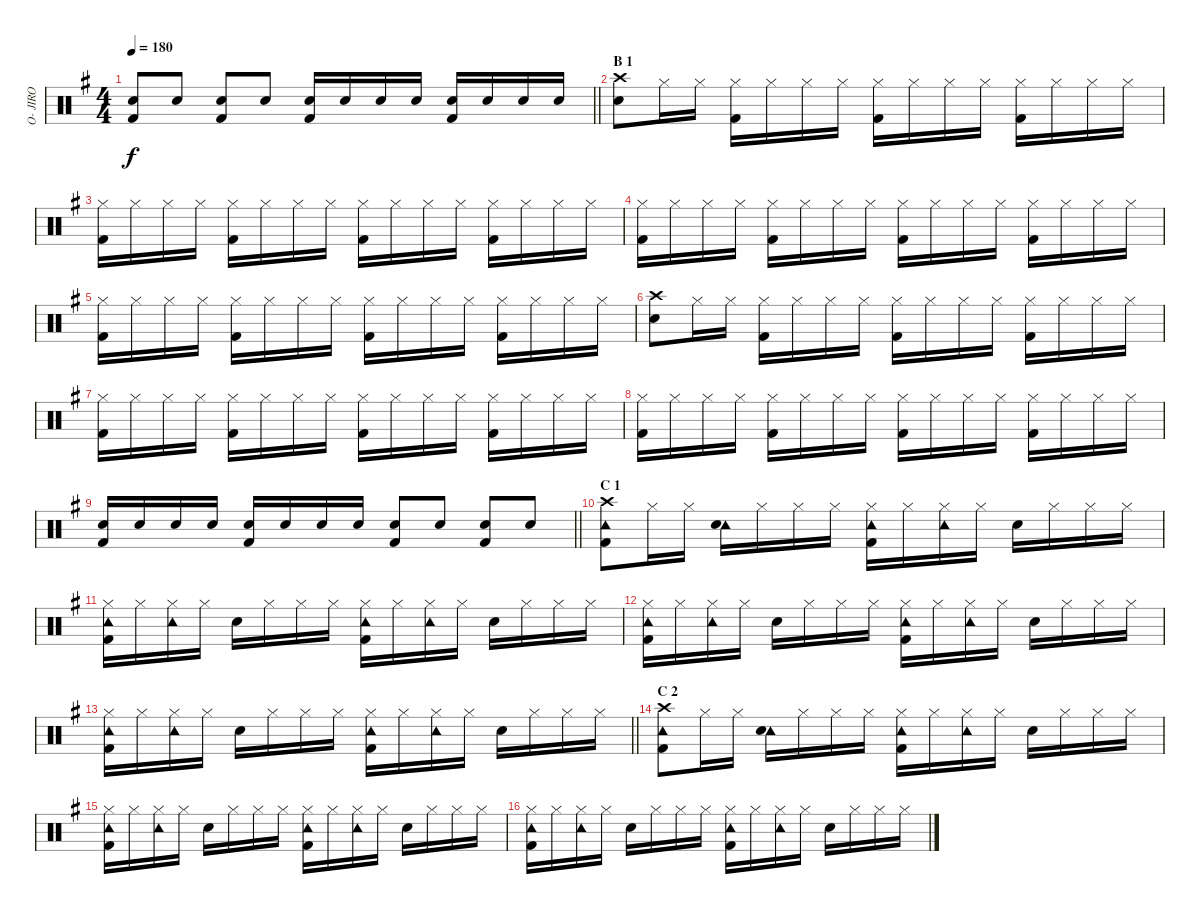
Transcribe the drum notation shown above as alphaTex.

\track ("O- JIRO" "O- JIRO") {instrument percussion}
\staff {score}
\articulation defaults
\ts (4 4)
\tempo 180
\clef neutral
\barLineRight lightlight
\ks g
("Snare (hit) 2" "Kick (hit) 2").8{dy f} "Snare (hit) 2".8 ("Kick (hit) 2" "Snare (hit) 2").8 "Snare (hit) 2".8 ("Snare (hit) 2" "Kick (hit) 2").16 "Snare (hit) 2".16 "Snare (hit) 2".16 "Snare (hit) 2".16 ("Snare (hit) 2" "Kick (hit) 2").16 "Snare (hit) 2".16 "Snare (hit) 2".16 "Snare (hit) 2".16 |
\section ("" "B 1")
("Crash high (hit)" "Snare (hit) 2").8 "Hi-Hat (closed)".16 "Hi-Hat (closed)".16 ("Hi-Hat (closed)" "Kick (hit) 2").16 "Hi-Hat (closed)".16 "Hi-Hat (closed)".16 "Hi-Hat (closed)".16 ("Hi-Hat (closed)" "Kick (hit) 2").16 "Hi-Hat (closed)".16 "Hi-Hat (closed)".16 "Hi-Hat (closed)".16 ("Hi-Hat (closed)" "Kick (hit) 2").16 "Hi-Hat (closed)".16 "Hi-Hat (closed)".16 "Hi-Hat (closed)".16 |
("Hi-Hat (closed)" "Kick (hit) 2").16 "Hi-Hat (closed)".16 "Hi-Hat (closed)".16 "Hi-Hat (closed)".16 ("Hi-Hat (closed)" "Kick (hit) 2").16 "Hi-Hat (closed)".16 "Hi-Hat (closed)".16 "Hi-Hat (closed)".16 ("Hi-Hat (closed)" "Kick (hit) 2").16 "Hi-Hat (closed)".16 "Hi-Hat (closed)".16 "Hi-Hat (closed)".16 ("Hi-Hat (closed)" "Kick (hit) 2").16 "Hi-Hat (closed)".16 "Hi-Hat (closed)".16 "Hi-Hat (closed)".16 |
("Hi-Hat (closed)" "Kick (hit) 2").16 "Hi-Hat (closed)".16 "Hi-Hat (closed)".16 "Hi-Hat (closed)".16 ("Hi-Hat (closed)" "Kick (hit) 2").16 "Hi-Hat (closed)".16 "Hi-Hat (closed)".16 "Hi-Hat (closed)".16 ("Hi-Hat (closed)" "Kick (hit) 2").16 "Hi-Hat (closed)".16 "Hi-Hat (closed)".16 "Hi-Hat (closed)".16 ("Hi-Hat (closed)" "Kick (hit) 2").16 "Hi-Hat (closed)".16 "Hi-Hat (closed)".16 "Hi-Hat (closed)".16 |
("Hi-Hat (closed)" "Kick (hit) 2").16 "Hi-Hat (closed)".16 "Hi-Hat (closed)".16 "Hi-Hat (closed)".16 ("Hi-Hat (closed)" "Kick (hit) 2").16 "Hi-Hat (closed)".16 "Hi-Hat (closed)".16 "Hi-Hat (closed)".16 ("Hi-Hat (closed)" "Kick (hit) 2").16 "Hi-Hat (closed)".16 "Hi-Hat (closed)".16 "Hi-Hat (closed)".16 ("Hi-Hat (closed)" "Kick (hit) 2").16 "Hi-Hat (closed)".16 "Hi-Hat (closed)".16 "Hi-Hat (closed)".16 |
("Crash high (hit)" "Snare (hit) 2").8 "Hi-Hat (closed)".16 "Hi-Hat (closed)".16 ("Hi-Hat (closed)" "Kick (hit) 2").16 "Hi-Hat (closed)".16 "Hi-Hat (closed)".16 "Hi-Hat (closed)".16 ("Hi-Hat (closed)" "Kick (hit) 2").16 "Hi-Hat (closed)".16 "Hi-Hat (closed)".16 "Hi-Hat (closed)".16 ("Hi-Hat (closed)" "Kick (hit) 2").16 "Hi-Hat (closed)".16 "Hi-Hat (closed)".16 "Hi-Hat (closed)".16 |
("Hi-Hat (closed)" "Kick (hit) 2").16 "Hi-Hat (closed)".16 "Hi-Hat (closed)".16 "Hi-Hat (closed)".16 ("Hi-Hat (closed)" "Kick (hit) 2").16 "Hi-Hat (closed)".16 "Hi-Hat (closed)".16 "Hi-Hat (closed)".16 ("Hi-Hat (closed)" "Kick (hit) 2").16 "Hi-Hat (closed)".16 "Hi-Hat (closed)".16 "Hi-Hat (closed)".16 ("Hi-Hat (closed)" "Kick (hit) 2").16 "Hi-Hat (closed)".16 "Hi-Hat (closed)".16 "Hi-Hat (closed)".16 |
("Hi-Hat (closed)" "Kick (hit) 2").16 "Hi-Hat (closed)".16 "Hi-Hat (closed)".16 "Hi-Hat (closed)".16 ("Hi-Hat (closed)" "Kick (hit) 2").16 "Hi-Hat (closed)".16 "Hi-Hat (closed)".16 "Hi-Hat (closed)".16 ("Hi-Hat (closed)" "Kick (hit) 2").16 "Hi-Hat (closed)".16 "Hi-Hat (closed)".16 "Hi-Hat (closed)".16 ("Hi-Hat (closed)" "Kick (hit) 2").16 "Hi-Hat (closed)".16 "Hi-Hat (closed)".16 "Hi-Hat (closed)".16 |
\barLineRight lightlight
("Snare (hit) 2" "Kick (hit) 2").16 "Snare (hit) 2".16 "Snare (hit) 2".16 "Snare (hit) 2".16 ("Snare (hit) 2" "Kick (hit) 2").16 "Snare (hit) 2".16 "Snare (hit) 2".16 "Snare (hit) 2".16 ("Snare (hit) 2" "Kick (hit) 2").8 "Snare (hit) 2".8 ("Snare (hit) 2" "Kick (hit) 2").8 "Snare (hit) 2".8 |
\section ("" "C 1")
("Crash high (hit)" "Kick (hit) 2" "Tambourine (hit)").8 "Hi-Hat (closed)".16 "Hi-Hat (closed)".16 ("Tambourine (hit)" "Snare (hit) 2").16 "Hi-Hat (closed)".16 "Hi-Hat (closed)".16 "Hi-Hat (closed)".16 ("Tambourine (hit)" "Kick (hit) 2" "Hi-Hat (closed)").16 "Hi-Hat (closed)".16 ("Hi-Hat (closed)" "Tambourine (hit)").16 "Hi-Hat (closed)".16 "Snare (hit) 2".16 "Hi-Hat (closed)".16 "Hi-Hat (closed)".16 "Hi-Hat (closed)".16 |
("Tambourine (hit)" "Kick (hit) 2" "Hi-Hat (closed)").16 "Hi-Hat (closed)".16 ("Hi-Hat (closed)" "Tambourine (hit)").16 "Hi-Hat (closed)".16 "Snare (hit) 2".16 "Hi-Hat (closed)".16 "Hi-Hat (closed)".16 "Hi-Hat (closed)".16 ("Tambourine (hit)" "Kick (hit) 2" "Hi-Hat (closed)").16 "Hi-Hat (closed)".16 ("Hi-Hat (closed)" "Tambourine (hit)").16 "Hi-Hat (closed)".16 "Snare (hit) 2".16 "Hi-Hat (closed)".16 "Hi-Hat (closed)".16 "Hi-Hat (closed)".16 |
("Tambourine (hit)" "Kick (hit) 2" "Hi-Hat (closed)").16 "Hi-Hat (closed)".16 ("Hi-Hat (closed)" "Tambourine (hit)").16 "Hi-Hat (closed)".16 "Snare (hit) 2".16 "Hi-Hat (closed)".16 "Hi-Hat (closed)".16 "Hi-Hat (closed)".16 ("Tambourine (hit)" "Kick (hit) 2" "Hi-Hat (closed)").16 "Hi-Hat (closed)".16 ("Hi-Hat (closed)" "Tambourine (hit)").16 "Hi-Hat (closed)".16 "Snare (hit) 2".16 "Hi-Hat (closed)".16 "Hi-Hat (closed)".16 "Hi-Hat (closed)".16 |
\barLineRight lightlight
("Tambourine (hit)" "Kick (hit) 2" "Hi-Hat (closed)").16 "Hi-Hat (closed)".16 ("Hi-Hat (closed)" "Tambourine (hit)").16 "Hi-Hat (closed)".16 "Snare (hit) 2".16 "Hi-Hat (closed)".16 "Hi-Hat (closed)".16 "Hi-Hat (closed)".16 ("Tambourine (hit)" "Kick (hit) 2" "Hi-Hat (closed)").16 "Hi-Hat (closed)".16 ("Hi-Hat (closed)" "Tambourine (hit)").16 "Hi-Hat (closed)".16 "Snare (hit) 2".16 "Hi-Hat (closed)".16 "Hi-Hat (closed)".16 "Hi-Hat (closed)".16 |
\section ("" "C 2")
("Crash high (hit)" "Kick (hit) 2" "Tambourine (hit)").8 "Hi-Hat (closed)".16 "Hi-Hat (closed)".16 ("Tambourine (hit)" "Snare (hit) 2").16 "Hi-Hat (closed)".16 "Hi-Hat (closed)".16 "Hi-Hat (closed)".16 ("Tambourine (hit)" "Kick (hit) 2" "Hi-Hat (closed)").16 "Hi-Hat (closed)".16 ("Hi-Hat (closed)" "Tambourine (hit)").16 "Hi-Hat (closed)".16 "Snare (hit) 2".16 "Hi-Hat (closed)".16 "Hi-Hat (closed)".16 "Hi-Hat (closed)".16 |
("Tambourine (hit)" "Kick (hit) 2" "Hi-Hat (closed)").16 "Hi-Hat (closed)".16 ("Hi-Hat (closed)" "Tambourine (hit)").16 "Hi-Hat (closed)".16 "Snare (hit) 2".16 "Hi-Hat (closed)".16 "Hi-Hat (closed)".16 "Hi-Hat (closed)".16 ("Tambourine (hit)" "Kick (hit) 2" "Hi-Hat (closed)").16 "Hi-Hat (closed)".16 ("Hi-Hat (closed)" "Tambourine (hit)").16 "Hi-Hat (closed)".16 "Snare (hit) 2".16 "Hi-Hat (closed)".16 "Hi-Hat (closed)".16 "Hi-Hat (closed)".16 |
("Tambourine (hit)" "Kick (hit) 2" "Hi-Hat (closed)").16 "Hi-Hat (closed)".16 ("Hi-Hat (closed)" "Tambourine (hit)").16 "Hi-Hat (closed)".16 "Snare (hit) 2".16 "Hi-Hat (closed)".16 "Hi-Hat (closed)".16 "Hi-Hat (closed)".16 ("Tambourine (hit)" "Kick (hit) 2" "Hi-Hat (closed)").16 "Hi-Hat (closed)".16 ("Hi-Hat (closed)" "Tambourine (hit)").16 "Hi-Hat (closed)".16 "Snare (hit) 2".16 "Hi-Hat (closed)".16 "Hi-Hat (closed)".16 "Hi-Hat (closed)".16
